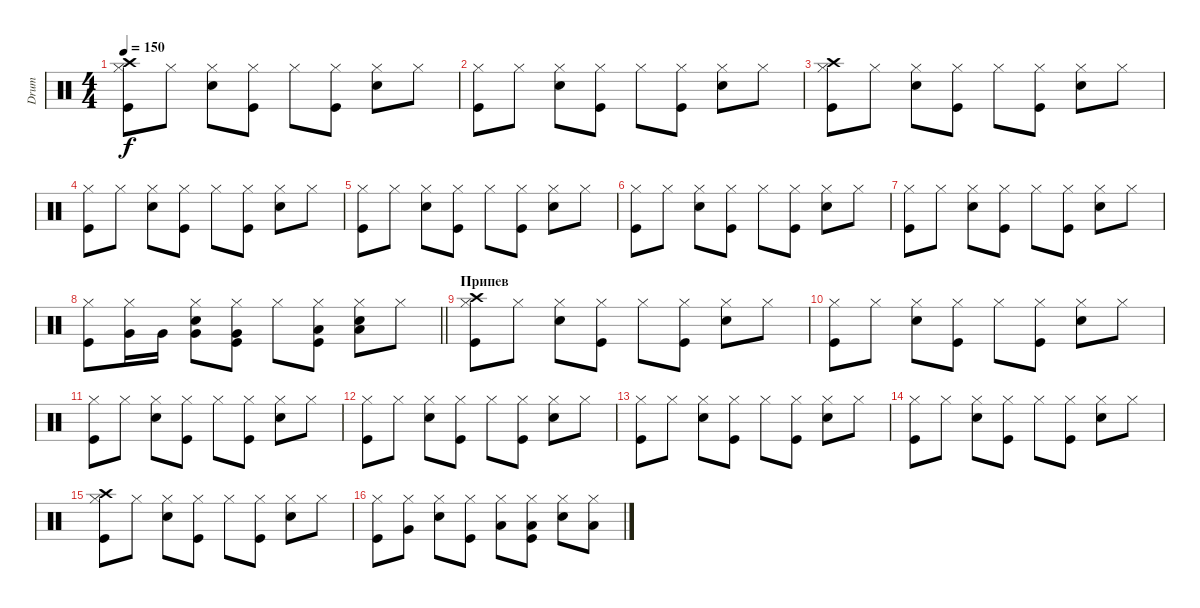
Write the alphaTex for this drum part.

\track ("Drum" "Drum") {instrument percussion}
\staff {score}
\articulation defaults
\ts (4 4)
\tempo 150
\clef neutral
\ks c
("Kick (hit)" "Hi-Hat (closed)" "Crash high (hit)").8{dy f} "Hi-Hat (closed)".8 ("Snare (hit) 2" "Hi-Hat (closed)").8 ("Kick (hit)" "Hi-Hat (closed)").8 "Hi-Hat (closed)".8 ("Kick (hit)" "Hi-Hat (closed)").8 ("Snare (hit) 2" "Hi-Hat (closed)").8 "Hi-Hat (closed)".8 |
("Kick (hit)" "Hi-Hat (closed)").8 "Hi-Hat (closed)".8 ("Snare (hit) 2" "Hi-Hat (closed)").8 ("Kick (hit)" "Hi-Hat (closed)").8 "Hi-Hat (closed)".8 ("Kick (hit)" "Hi-Hat (closed)").8 ("Snare (hit) 2" "Hi-Hat (closed)").8 "Hi-Hat (closed)".8 |
("Kick (hit)" "Hi-Hat (closed)" "Crash high (hit)").8 "Hi-Hat (closed)".8 ("Snare (hit) 2" "Hi-Hat (closed)").8 ("Kick (hit)" "Hi-Hat (closed)").8 "Hi-Hat (closed)".8 ("Kick (hit)" "Hi-Hat (closed)").8 ("Snare (hit) 2" "Hi-Hat (closed)").8 "Hi-Hat (closed)".8 |
("Kick (hit)" "Hi-Hat (closed)").8 "Hi-Hat (closed)".8 ("Snare (hit) 2" "Hi-Hat (closed)").8 ("Kick (hit)" "Hi-Hat (closed)").8 "Hi-Hat (closed)".8 ("Kick (hit)" "Hi-Hat (closed)").8 ("Snare (hit) 2" "Hi-Hat (closed)").8 "Hi-Hat (closed)".8 |
("Kick (hit)" "Hi-Hat (closed)").8 "Hi-Hat (closed)".8 ("Snare (hit) 2" "Hi-Hat (closed)").8 ("Kick (hit)" "Hi-Hat (closed)").8 "Hi-Hat (closed)".8 ("Kick (hit)" "Hi-Hat (closed)").8 ("Snare (hit) 2" "Hi-Hat (closed)").8 "Hi-Hat (closed)".8 |
("Kick (hit)" "Hi-Hat (closed)").8 "Hi-Hat (closed)".8 ("Snare (hit) 2" "Hi-Hat (closed)").8 ("Kick (hit)" "Hi-Hat (closed)").8 "Hi-Hat (closed)".8 ("Kick (hit)" "Hi-Hat (closed)").8 ("Snare (hit) 2" "Hi-Hat (closed)").8 "Hi-Hat (closed)".8 |
("Kick (hit)" "Hi-Hat (closed)").8 "Hi-Hat (closed)".8 ("Snare (hit) 2" "Hi-Hat (closed)").8 ("Kick (hit)" "Hi-Hat (closed)").8 "Hi-Hat (closed)".8 ("Kick (hit)" "Hi-Hat (closed)").8 ("Snare (hit) 2" "Hi-Hat (closed)").8 "Hi-Hat (closed)".8 |
\barLineRight lightlight
("Kick (hit)" "Hi-Hat (closed)").8 ("Hi-Hat (closed)" "Very Low Tom (hit)").16 "Very Low Tom (hit)".16 ("Snare (hit) 2" "Hi-Hat (closed)" "Very Low Tom (hit)").8 ("Kick (hit)" "Hi-Hat (closed)" "Very Low Tom (hit)").8 "Hi-Hat (closed)".8 ("Kick (hit)" "Hi-Hat (closed)" "Low Tom (hit)").8 ("Snare (hit) 2" "Hi-Hat (closed)" "Low Tom (hit)").8 "Hi-Hat (closed)".8 |
\section ("" "Припев")
("Kick (hit)" "Hi-Hat (closed)" "Crash high (hit)").8 "Hi-Hat (closed)".8 ("Snare (hit) 2" "Hi-Hat (closed)").8 ("Kick (hit)" "Hi-Hat (closed)").8 "Hi-Hat (closed)".8 ("Kick (hit)" "Hi-Hat (closed)").8 ("Snare (hit) 2" "Hi-Hat (closed)").8 "Hi-Hat (closed)".8 |
("Kick (hit)" "Hi-Hat (closed)").8 "Hi-Hat (closed)".8 ("Snare (hit) 2" "Hi-Hat (closed)").8 ("Kick (hit)" "Hi-Hat (closed)").8 "Hi-Hat (closed)".8 ("Kick (hit)" "Hi-Hat (closed)").8 ("Snare (hit) 2" "Hi-Hat (closed)").8 "Hi-Hat (closed)".8 |
("Kick (hit)" "Hi-Hat (closed)").8 "Hi-Hat (closed)".8 ("Snare (hit) 2" "Hi-Hat (closed)").8 ("Kick (hit)" "Hi-Hat (closed)").8 "Hi-Hat (closed)".8 ("Kick (hit)" "Hi-Hat (closed)").8 ("Snare (hit) 2" "Hi-Hat (closed)").8 "Hi-Hat (closed)".8 |
("Kick (hit)" "Hi-Hat (closed)").8 "Hi-Hat (closed)".8 ("Snare (hit) 2" "Hi-Hat (closed)").8 ("Kick (hit)" "Hi-Hat (closed)").8 "Hi-Hat (closed)".8 ("Kick (hit)" "Hi-Hat (closed)").8 ("Snare (hit) 2" "Hi-Hat (closed)").8 "Hi-Hat (closed)".8 |
("Kick (hit)" "Hi-Hat (closed)").8 "Hi-Hat (closed)".8 ("Snare (hit) 2" "Hi-Hat (closed)").8 ("Kick (hit)" "Hi-Hat (closed)").8 "Hi-Hat (closed)".8 ("Kick (hit)" "Hi-Hat (closed)").8 ("Snare (hit) 2" "Hi-Hat (closed)").8 "Hi-Hat (closed)".8 |
("Kick (hit)" "Hi-Hat (closed)").8 "Hi-Hat (closed)".8 ("Snare (hit) 2" "Hi-Hat (closed)").8 ("Kick (hit)" "Hi-Hat (closed)").8 "Hi-Hat (closed)".8 ("Kick (hit)" "Hi-Hat (closed)").8 ("Snare (hit) 2" "Hi-Hat (closed)").8 "Hi-Hat (closed)".8 |
("Kick (hit)" "Hi-Hat (closed)" "Crash high (hit)").8 "Hi-Hat (closed)".8 ("Snare (hit) 2" "Hi-Hat (closed)").8 ("Kick (hit)" "Hi-Hat (closed)").8 "Hi-Hat (closed)".8 ("Kick (hit)" "Hi-Hat (closed)").8 ("Snare (hit) 2" "Hi-Hat (closed)").8 "Hi-Hat (closed)".8 |
("Kick (hit)" "Hi-Hat (closed)").8 ("Hi-Hat (closed)" "Very Low Tom (hit)").8 ("Snare (hit) 2" "Hi-Hat (closed)").8 ("Kick (hit)" "Hi-Hat (closed)").8 ("Hi-Hat (closed)" "Low Tom (hit)").8 ("Kick (hit)" "Hi-Hat (closed)" "Low Tom (hit)").8 ("Snare (hit) 2" "Hi-Hat (closed)").8 ("Hi-Hat (closed)" "Low Tom (hit)").8
